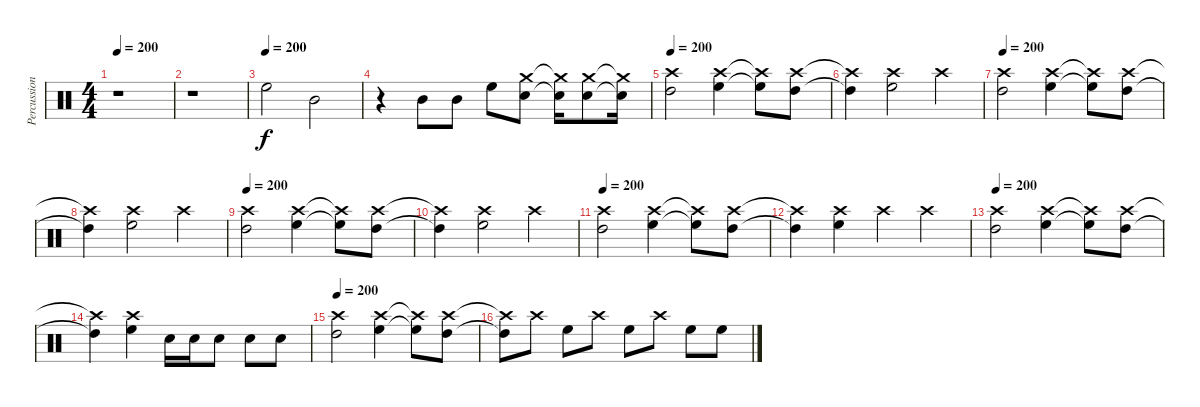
\track ("Percussion" "Percussion") {instrument percussion}
\staff {score}
\articulation defaults
\ts (4 4)
\tempo 200
\clef neutral
\ks c
r.1{dy f} |
r.1 |
\tempo (200)
"High Floor Tom (hit)".2 "Mid Tom (hit)".2 |
r.4 "Mid Tom (hit)".8 "Mid Tom (hit)".8 "High Floor Tom (hit)".8 ("Crash medium (hit)" "Electric Snare (hit)").8 ("Crash medium (hit)"{t} "Electric Snare (hit)"{t}).16 ("Crash medium (hit)" "Electric Snare (hit)").8 ("Crash medium (hit)"{t} "Electric Snare (hit)"{t}).16 |
\tempo 200
("Crash high (hit)" "High Tom (hit)").2 ("Crash high (hit)" "High Floor Tom (hit)").4 ("Crash high (hit)"{t} "High Floor Tom (hit)"{t}).8 ("Crash high (hit)" "High Tom (hit)").8 |
("Crash high (hit)"{t} "High Tom (hit)"{t}).4 ("Crash high (hit)" "High Floor Tom (hit)").2 "Crash high (hit)".4 |
\tempo 200
("Crash high (hit)" "High Tom (hit)").2 ("Crash high (hit)" "High Floor Tom (hit)").4 ("Crash high (hit)"{t} "High Floor Tom (hit)"{t}).8 ("Crash high (hit)" "High Tom (hit)").8 |
("Crash high (hit)"{t} "High Tom (hit)"{t}).4 ("Crash high (hit)" "High Floor Tom (hit)").2 "Crash high (hit)".4 |
\tempo 200
("Crash high (hit)" "High Tom (hit)").2 ("Crash high (hit)" "High Floor Tom (hit)").4 ("Crash high (hit)"{t} "High Floor Tom (hit)"{t}).8 ("Crash high (hit)" "High Tom (hit)").8 |
("Crash high (hit)"{t} "High Tom (hit)"{t}).4 ("Crash high (hit)" "High Floor Tom (hit)").2 "Crash high (hit)".4 |
\tempo 200
("Crash high (hit)" "High Tom (hit)").2 ("Crash high (hit)" "High Floor Tom (hit)").4 ("Crash high (hit)"{t} "High Floor Tom (hit)"{t}).8 ("Crash high (hit)" "High Tom (hit)").8 |
("Crash high (hit)"{t} "High Tom (hit)"{t}).4 ("Crash high (hit)" "High Floor Tom (hit)").4 "Crash high (hit)".4 "Crash high (hit)".4 |
\tempo 200
("Crash high (hit)" "High Tom (hit)").2 ("Crash high (hit)" "High Floor Tom (hit)").4 ("Crash high (hit)"{t} "High Floor Tom (hit)"{t}).8 ("Crash high (hit)" "High Tom (hit)").8 |
("Crash high (hit)"{t} "High Tom (hit)"{t}).4 ("Crash high (hit)" "High Floor Tom (hit)").4 "Electric Snare (hit)".16 "Electric Snare (hit)".16 "Electric Snare (hit)".8 "Snare (hit) 2".8 "Snare (hit) 2".8 |
\tempo 200
("Crash high (hit)" "High Tom (hit)").2 ("Crash high (hit)" "High Floor Tom (hit)").4 ("Crash high (hit)"{t} "High Floor Tom (hit)"{t}).8 ("Crash high (hit)" "High Tom (hit)").8 |
("Crash high (hit)"{t} "High Tom (hit)"{t}).8 "Crash high (hit)".8 "High Floor Tom (hit)".8 "Crash high (hit)".8 "High Floor Tom (hit)".8 "Crash high (hit)".8 "High Floor Tom (hit)".8 "High Floor Tom (hit)".8
